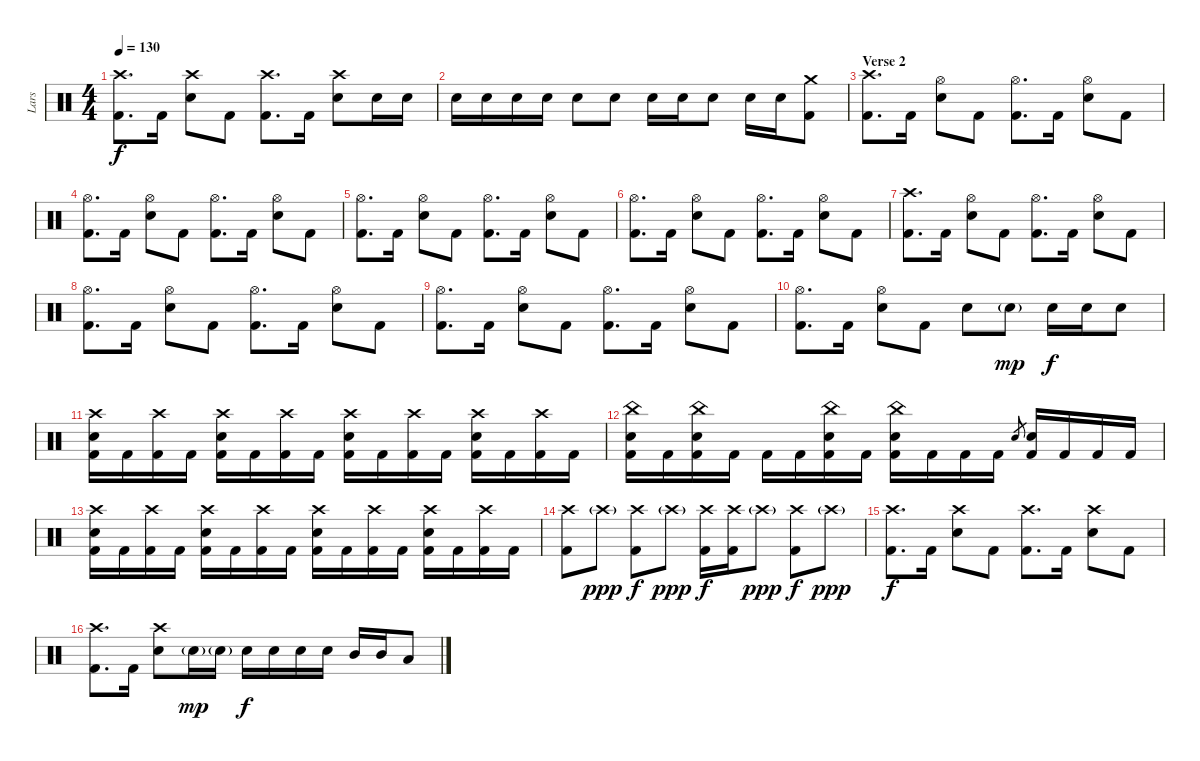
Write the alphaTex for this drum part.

\track ("Lars" "Lars") {instrument percussion}
\staff {score}
\articulation defaults
\ts (4 4)
\tempo 130
\clef neutral
\ks c
("Kick (hit) 2" "Crash high (hit)").8{d dy f} "Kick (hit) 2".16 ("Electric Snare (hit)" "Crash high (hit)").8 "Kick (hit) 2".8 ("Kick (hit) 2" "Crash high (hit)").8{d} "Kick (hit) 2".16 ("Electric Snare (hit)" "Crash high (hit)").8 "Electric Snare (hit)".16 "Electric Snare (hit)".16 |
"Electric Snare (hit)".16 "Electric Snare (hit)".16 "Electric Snare (hit)".16 "Electric Snare (hit)".16 "Electric Snare (hit)".8 "Electric Snare (hit)".8 "Electric Snare (hit)".16 "Electric Snare (hit)".16 "Electric Snare (hit)".8 "Electric Snare (hit)".16 "Electric Snare (hit)".16 ("Kick (hit) 2" "Crash medium (hit)").8 |
\section ("" "Verse 2")
("Kick (hit) 2" "Crash high (hit)").8{d} "Kick (hit) 2".16 ("Electric Snare (hit)" "Hi-Hat (open)").8 "Kick (hit) 2".8 ("Kick (hit) 2" "Hi-Hat (open)").8{d} "Kick (hit) 2".16 ("Electric Snare (hit)" "Hi-Hat (open)").8 "Kick (hit) 2".8 |
("Kick (hit) 2" "Hi-Hat (open)").8{d} "Kick (hit) 2".16 ("Electric Snare (hit)" "Hi-Hat (open)").8 "Kick (hit) 2".8 ("Kick (hit) 2" "Hi-Hat (open)").8{d} "Kick (hit) 2".16 ("Electric Snare (hit)" "Hi-Hat (open)").8 "Kick (hit) 2".8 |
("Kick (hit) 2" "Hi-Hat (open)").8{d} "Kick (hit) 2".16 ("Electric Snare (hit)" "Hi-Hat (open)").8 "Kick (hit) 2".8 ("Kick (hit) 2" "Hi-Hat (open)").8{d} "Kick (hit) 2".16 ("Electric Snare (hit)" "Hi-Hat (open)").8 "Kick (hit) 2".8 |
("Kick (hit) 2" "Hi-Hat (open)").8{d} "Kick (hit) 2".16 ("Electric Snare (hit)" "Hi-Hat (open)").8 "Kick (hit) 2".8 ("Kick (hit) 2" "Hi-Hat (open)").8{d} "Kick (hit) 2".16 ("Electric Snare (hit)" "Hi-Hat (open)").8 "Kick (hit) 2".8 |
("Kick (hit) 2" "Crash high (hit)").8{d} "Kick (hit) 2".16 ("Electric Snare (hit)" "Hi-Hat (open)").8 "Kick (hit) 2".8 ("Kick (hit) 2" "Hi-Hat (open)").8{d} "Kick (hit) 2".16 ("Electric Snare (hit)" "Hi-Hat (open)").8 "Kick (hit) 2".8 |
("Kick (hit) 2" "Hi-Hat (open)").8{d} "Kick (hit) 2".16 ("Electric Snare (hit)" "Hi-Hat (open)").8 "Kick (hit) 2".8 ("Kick (hit) 2" "Hi-Hat (open)").8{d} "Kick (hit) 2".16 ("Electric Snare (hit)" "Hi-Hat (open)").8 "Kick (hit) 2".8 |
("Kick (hit) 2" "Hi-Hat (open)").8{d} "Kick (hit) 2".16 ("Electric Snare (hit)" "Hi-Hat (open)").8 "Kick (hit) 2".8 ("Kick (hit) 2" "Hi-Hat (open)").8{d} "Kick (hit) 2".16 ("Electric Snare (hit)" "Hi-Hat (open)").8 "Kick (hit) 2".8 |
("Kick (hit) 2" "Hi-Hat (open)").8{d} "Kick (hit) 2".16 ("Electric Snare (hit)" "Hi-Hat (open)").8 "Kick (hit) 2".8 "Electric Snare (hit)".8 "Electric Snare (hit)"{g}.8{dy mp} "Electric Snare (hit)".16{dy f} "Electric Snare (hit)".16 "Electric Snare (hit)".8 |
\section ("" "")
("Kick (hit) 2" "Electric Snare (hit)" "Crash high (hit)").16 "Kick (hit) 2".16 ("Kick (hit) 2" "Crash high (hit)").16 "Kick (hit) 2".16 ("Kick (hit) 2" "Electric Snare (hit)" "Crash high (hit)").16 "Kick (hit) 2".16 ("Kick (hit) 2" "Crash high (hit)").16 "Kick (hit) 2".16 ("Kick (hit) 2" "Electric Snare (hit)" "Crash high (hit)").16 "Kick (hit) 2".16 ("Kick (hit) 2" "Crash high (hit)").16 "Kick (hit) 2".16 ("Kick (hit) 2" "Electric Snare (hit)" "Crash high (hit)").16 "Kick (hit) 2".16 ("Kick (hit) 2" "Crash high (hit)").16 "Kick (hit) 2".16 |
("Kick (hit) 2" "Electric Snare (hit)" "China (hit)").16 "Kick (hit) 2".16 ("Kick (hit) 2" "Electric Snare (hit)" "China (hit)").16 "Kick (hit) 2".16 "Kick (hit) 2".16 "Kick (hit) 2".16 ("Kick (hit) 2" "Electric Snare (hit)" "China (hit)").16 "Kick (hit) 2".16 ("Kick (hit) 2" "Electric Snare (hit)" "China (hit)").16 "Kick (hit) 2".16 "Kick (hit) 2".16 "Kick (hit) 2".16 "Electric Snare (hit)".8{gr} ("Kick (hit) 2" "Electric Snare (hit)").16 "Kick (hit) 2".16 "Kick (hit) 2".16 "Kick (hit) 2".16 |
("Kick (hit) 2" "Electric Snare (hit)" "Crash high (hit)").16 "Kick (hit) 2".16 ("Kick (hit) 2" "Crash high (hit)").16 "Kick (hit) 2".16 ("Kick (hit) 2" "Electric Snare (hit)" "Crash high (hit)").16 "Kick (hit) 2".16 ("Kick (hit) 2" "Crash high (hit)").16 "Kick (hit) 2".16 ("Kick (hit) 2" "Electric Snare (hit)" "Crash high (hit)").16 "Kick (hit) 2".16 ("Kick (hit) 2" "Crash high (hit)").16 "Kick (hit) 2".16 ("Kick (hit) 2" "Electric Snare (hit)" "Crash high (hit)").16 "Kick (hit) 2".16 ("Kick (hit) 2" "Crash high (hit)").16 "Kick (hit) 2".16 |
("Kick (hit) 2" "Crash high (hit)").8 "Crash high (hit)"{g}.8{dy ppp} ("Kick (hit) 2" "Crash high (hit)").8{dy f} "Crash high (hit)"{g}.8{dy ppp} ("Kick (hit) 2" "Crash high (hit)").16{dy f} ("Kick (hit) 2" "Crash high (hit)").16 "Crash high (hit)"{g}.8{dy ppp} ("Kick (hit) 2" "Crash high (hit)").8{dy f} "Crash high (hit)"{g}.8{dy ppp} |
\section ("" "")
("Kick (hit) 2" "Crash high (hit)").8{d dy f} "Kick (hit) 2".16 ("Electric Snare (hit)" "Crash high (hit)").8 "Kick (hit) 2".8 ("Kick (hit) 2" "Crash high (hit)").8{d} "Kick (hit) 2".16 ("Electric Snare (hit)" "Crash high (hit)").8 "Kick (hit) 2".8 |
("Kick (hit) 2" "Crash high (hit)").8{d} "Kick (hit) 2".16 ("Electric Snare (hit)" "Crash high (hit)").8 "Electric Snare (hit)"{g}.16{dy mp} "Electric Snare (hit)"{g}.16 "Electric Snare (hit)".16{dy f} "Electric Snare (hit)".16 "Electric Snare (hit)".16 "Electric Snare (hit)".16 "Mid Tom (hit)".16 "Mid Tom (hit)".16 "Low Tom (hit)".8
